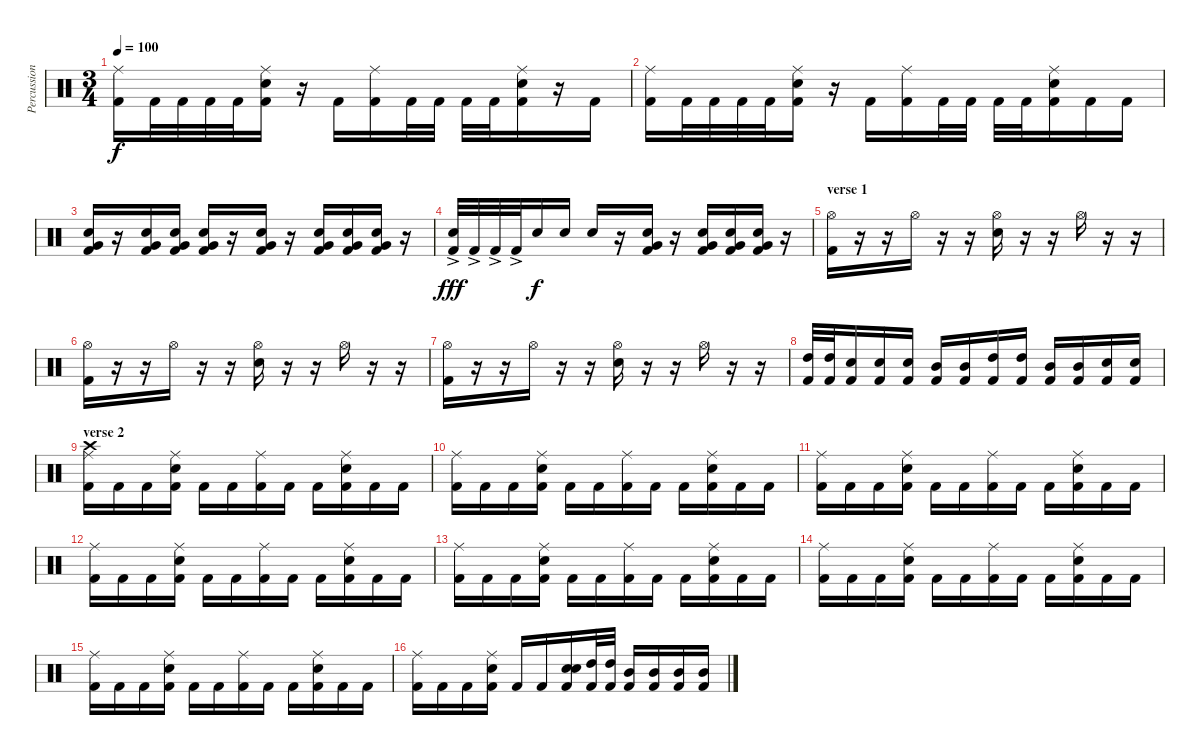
\track ("Percussions" "Percussion") {instrument percussion}
\staff {score}
\articulation defaults
\ts (3 4)
\tempo 100
\clef neutral
\ks c
("Ride (middle)" "Kick (hit) 2").16{dy f} "Kick (hit) 2".32 "Kick (hit) 2".32 "Kick (hit) 2".32 "Kick (hit) 2".32 ("Ride (middle)" "Electric Snare (hit)" "Kick (hit) 2").16 r.16 "Kick (hit) 2".16 ("Ride (middle)" "Kick (hit) 2").16 "Kick (hit) 2".32 "Kick (hit) 2".32 "Kick (hit) 2".32 "Kick (hit) 2".32 ("Ride (middle)" "Electric Snare (hit)" "Kick (hit) 2").16 r.16 "Kick (hit) 2".16 |
("Ride (middle)" "Kick (hit) 2").16 "Kick (hit) 2".32 "Kick (hit) 2".32 "Kick (hit) 2".32 "Kick (hit) 2".32 ("Ride (middle)" "Electric Snare (hit)" "Kick (hit) 2").16 r.16 "Kick (hit) 2".16 ("Ride (middle)" "Kick (hit) 2").16 "Kick (hit) 2".32 "Kick (hit) 2".32 "Kick (hit) 2".32 "Kick (hit) 2".32 ("Ride (middle)" "Electric Snare (hit)" "Kick (hit) 2").16 "Kick (hit) 2".16 "Kick (hit) 2".16 |
("Electric Snare (hit)" "Very Low Tom (hit)" "Kick (hit) 2").16 r.16 ("Electric Snare (hit)" "Very Low Tom (hit)" "Kick (hit) 2").16 ("Electric Snare (hit)" "Very Low Tom (hit)" "Kick (hit) 2").16 ("Electric Snare (hit)" "Very Low Tom (hit)" "Kick (hit) 2").16 r.16 ("Electric Snare (hit)" "Very Low Tom (hit)" "Kick (hit) 2").16 r.16 ("Electric Snare (hit)" "Very Low Tom (hit)" "Kick (hit) 2").16 ("Electric Snare (hit)" "Very Low Tom (hit)" "Kick (hit) 2").16 ("Electric Snare (hit)" "Very Low Tom (hit)" "Kick (hit) 2").16 r.16 |
("Electric Snare (hit)" "Kick (hit) 2"{ac}).32{dy fff} "Kick (hit) 2"{ac}.32 "Kick (hit) 2"{ac}.32 "Kick (hit) 2"{ac}.32 "Electric Snare (hit)".16{dy f} "Electric Snare (hit)".16 "Electric Snare (hit)".16 r.16 ("Very Low Tom (hit)" "Electric Snare (hit)" "Kick (hit) 2").16 r.16 ("Very Low Tom (hit)" "Electric Snare (hit)" "Kick (hit) 2").16 ("Very Low Tom (hit)" "Electric Snare (hit)" "Kick (hit) 2").16 ("Very Low Tom (hit)" "Electric Snare (hit)" "Kick (hit) 2").16 r.16 |
\section ("" "verse 1")
("Hi-Hat (open)" "Kick (hit) 2").16 r.16 r.16 "Hi-Hat (open)".16 r.16 r.16 ("Hi-Hat (open)" "Electric Snare (hit)").16 r.16 r.16 "Hi-Hat (open)".16 r.16 r.16 |
("Hi-Hat (open)" "Kick (hit) 2").16 r.16 r.16 "Hi-Hat (open)".16 r.16 r.16 ("Hi-Hat (open)" "Electric Snare (hit)").16 r.16 r.16 "Hi-Hat (open)".16 r.16 r.16 |
("Hi-Hat (open)" "Kick (hit) 2").16 r.16 r.16 "Hi-Hat (open)".16 r.16 r.16 ("Hi-Hat (open)" "Electric Snare (hit)").16 r.16 r.16 "Hi-Hat (open)".16 r.16 r.16 |
("High Tom (hit)" "Kick (hit) 2").32 ("High Tom (hit)" "Kick (hit) 2").32 ("Electric Snare (hit)" "Kick (hit) 2").16 ("Electric Snare (hit)" "Kick (hit) 2").16 ("Electric Snare (hit)" "Kick (hit) 2").16 ("Mid Tom (hit)" "Kick (hit) 2").16 ("Mid Tom (hit)" "Kick (hit) 2").16 ("High Tom (hit)" "Kick (hit) 2").16 ("High Tom (hit)" "Kick (hit) 2").16 ("Mid Tom (hit)" "Kick (hit) 2").16 ("Mid Tom (hit)" "Kick (hit) 2").16 ("Electric Snare (hit)" "Kick (hit) 2").16 ("Electric Snare (hit)" "Kick (hit) 2").16 |
\section ("" "verse 2")
("Crash high (hit)" "Ride (middle)" "Kick (hit) 2").16 "Kick (hit) 2".16 "Kick (hit) 2".16 ("Ride (middle)" "Electric Snare (hit)" "Kick (hit) 2").16 "Kick (hit) 2".16 "Kick (hit) 2".16 ("Ride (middle)" "Kick (hit) 2").16 "Kick (hit) 2".16 "Kick (hit) 2".16 ("Ride (middle)" "Electric Snare (hit)" "Kick (hit) 2").16 "Kick (hit) 2".16 "Kick (hit) 2".16 |
("Ride (middle)" "Kick (hit) 2").16 "Kick (hit) 2".16 "Kick (hit) 2".16 ("Ride (middle)" "Electric Snare (hit)" "Kick (hit) 2").16 "Kick (hit) 2".16 "Kick (hit) 2".16 ("Ride (middle)" "Kick (hit) 2").16 "Kick (hit) 2".16 "Kick (hit) 2".16 ("Ride (middle)" "Electric Snare (hit)" "Kick (hit) 2").16 "Kick (hit) 2".16 "Kick (hit) 2".16 |
("Ride (middle)" "Kick (hit) 2").16 "Kick (hit) 2".16 "Kick (hit) 2".16 ("Ride (middle)" "Electric Snare (hit)" "Kick (hit) 2").16 "Kick (hit) 2".16 "Kick (hit) 2".16 ("Ride (middle)" "Kick (hit) 2").16 "Kick (hit) 2".16 "Kick (hit) 2".16 ("Ride (middle)" "Electric Snare (hit)" "Kick (hit) 2").16 "Kick (hit) 2".16 "Kick (hit) 2".16 |
("Ride (middle)" "Kick (hit) 2").16 "Kick (hit) 2".16 "Kick (hit) 2".16 ("Ride (middle)" "Electric Snare (hit)" "Kick (hit) 2").16 "Kick (hit) 2".16 "Kick (hit) 2".16 ("Ride (middle)" "Kick (hit) 2").16 "Kick (hit) 2".16 "Kick (hit) 2".16 ("Ride (middle)" "Electric Snare (hit)" "Kick (hit) 2").16 "Kick (hit) 2".16 "Kick (hit) 2".16 |
("Ride (middle)" "Kick (hit) 2").16 "Kick (hit) 2".16 "Kick (hit) 2".16 ("Ride (middle)" "Electric Snare (hit)" "Kick (hit) 2").16 "Kick (hit) 2".16 "Kick (hit) 2".16 ("Ride (middle)" "Kick (hit) 2").16 "Kick (hit) 2".16 "Kick (hit) 2".16 ("Ride (middle)" "Electric Snare (hit)" "Kick (hit) 2").16 "Kick (hit) 2".16 "Kick (hit) 2".16 |
("Ride (middle)" "Kick (hit) 2").16 "Kick (hit) 2".16 "Kick (hit) 2".16 ("Ride (middle)" "Electric Snare (hit)" "Kick (hit) 2").16 "Kick (hit) 2".16 "Kick (hit) 2".16 ("Ride (middle)" "Kick (hit) 2").16 "Kick (hit) 2".16 "Kick (hit) 2".16 ("Ride (middle)" "Electric Snare (hit)" "Kick (hit) 2").16 "Kick (hit) 2".16 "Kick (hit) 2".16 |
("Ride (middle)" "Kick (hit) 2").16 "Kick (hit) 2".16 "Kick (hit) 2".16 ("Ride (middle)" "Electric Snare (hit)" "Kick (hit) 2").16 "Kick (hit) 2".16 "Kick (hit) 2".16 ("Ride (middle)" "Kick (hit) 2").16 "Kick (hit) 2".16 "Kick (hit) 2".16 ("Ride (middle)" "Electric Snare (hit)" "Kick (hit) 2").16 "Kick (hit) 2".16 "Kick (hit) 2".16 |
("Ride (middle)" "Kick (hit) 2").16 "Kick (hit) 2".16 "Kick (hit) 2".16 ("Ride (middle)" "Electric Snare (hit)" "Kick (hit) 2").16 "Kick (hit) 2".16 "Kick (hit) 2".16 ("Electric Snare (hit)" "Electric Snare (hit)" "Kick (hit) 2").16 ("High Tom (hit)" "Kick (hit) 2").32 ("High Tom (hit)" "Kick (hit) 2").32 ("Mid Tom (hit)" "Kick (hit) 2").16 ("Mid Tom (hit)" "Kick (hit) 2").16 ("Mid Tom (hit)" "Kick (hit) 2").16 ("Mid Tom (hit)" "Kick (hit) 2").16
